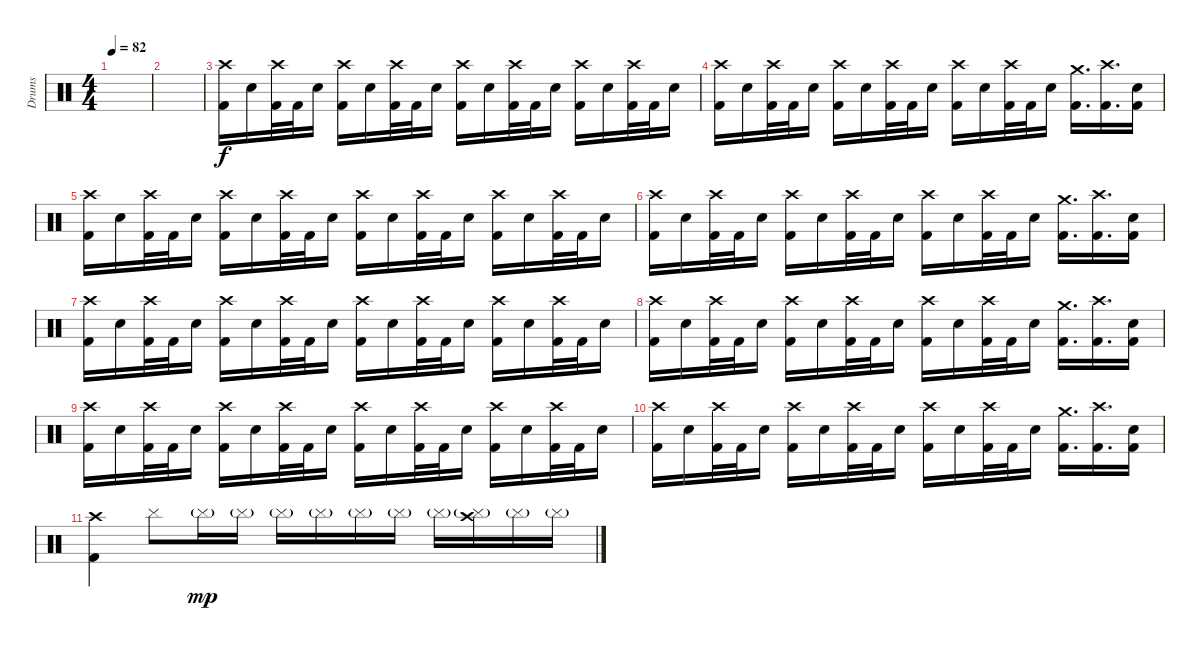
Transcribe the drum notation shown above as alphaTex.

\track ("Drums" "Drums") {instrument percussion}
\staff
\articulation defaults
\ts (4 4)
\section ("" "")
\tempo 82
\clef neutral
\ks c
|
|
("Crash high (hit)" "Kick (hit) 2").16 "Snare (hit) 2".16 ("Crash high (hit)" "Kick (hit) 2").32 "Kick (hit) 2".32 "Snare (hit) 2".16 ("Crash high (hit)" "Kick (hit) 2").16 "Snare (hit) 2".16 ("Crash high (hit)" "Kick (hit) 2").32 "Kick (hit) 2".32 "Snare (hit) 2".16 ("Crash high (hit)" "Kick (hit) 2").16 "Snare (hit) 2".16 ("Crash high (hit)" "Kick (hit) 2").32 "Kick (hit) 2".32 "Snare (hit) 2".16 ("Crash high (hit)" "Kick (hit) 2").16 "Snare (hit) 2".16 ("Crash high (hit)" "Kick (hit) 2").32 "Kick (hit) 2".32 "Snare (hit) 2".16 |
("Crash high (hit)" "Kick (hit) 2").16 "Snare (hit) 2".16 ("Crash high (hit)" "Kick (hit) 2").32 "Kick (hit) 2".32 "Snare (hit) 2".16 ("Crash high (hit)" "Kick (hit) 2").16 "Snare (hit) 2".16 ("Crash high (hit)" "Kick (hit) 2").32 "Kick (hit) 2".32 "Snare (hit) 2".16 ("Crash high (hit)" "Kick (hit) 2").16 "Snare (hit) 2".16 ("Crash high (hit)" "Kick (hit) 2").32 "Kick (hit) 2".32 "Snare (hit) 2".16 ("Crash medium (hit)" "Kick (hit) 2").16{d} ("Crash high (hit)" "Kick (hit) 2").16{d} ("Snare (hit) 2" "Kick (hit) 2").16 |
("Crash high (hit)" "Kick (hit) 2").16 "Snare (hit) 2".16 ("Crash high (hit)" "Kick (hit) 2").32 "Kick (hit) 2".32 "Snare (hit) 2".16 ("Crash high (hit)" "Kick (hit) 2").16 "Snare (hit) 2".16 ("Crash high (hit)" "Kick (hit) 2").32 "Kick (hit) 2".32 "Snare (hit) 2".16 ("Crash high (hit)" "Kick (hit) 2").16 "Snare (hit) 2".16 ("Crash high (hit)" "Kick (hit) 2").32 "Kick (hit) 2".32 "Snare (hit) 2".16 ("Crash high (hit)" "Kick (hit) 2").16 "Snare (hit) 2".16 ("Crash high (hit)" "Kick (hit) 2").32 "Kick (hit) 2".32 "Snare (hit) 2".16 |
("Crash high (hit)" "Kick (hit) 2").16 "Snare (hit) 2".16 ("Crash high (hit)" "Kick (hit) 2").32 "Kick (hit) 2".32 "Snare (hit) 2".16 ("Crash high (hit)" "Kick (hit) 2").16 "Snare (hit) 2".16 ("Crash high (hit)" "Kick (hit) 2").32 "Kick (hit) 2".32 "Snare (hit) 2".16 ("Crash high (hit)" "Kick (hit) 2").16 "Snare (hit) 2".16 ("Crash high (hit)" "Kick (hit) 2").32 "Kick (hit) 2".32 "Snare (hit) 2".16 ("Crash medium (hit)" "Kick (hit) 2").16{d} ("Crash high (hit)" "Kick (hit) 2").16{d} ("Snare (hit) 2" "Kick (hit) 2").16 |
("Crash high (hit)" "Kick (hit) 2").16 "Snare (hit) 2".16 ("Crash high (hit)" "Kick (hit) 2").32 "Kick (hit) 2".32 "Snare (hit) 2".16 ("Crash high (hit)" "Kick (hit) 2").16 "Snare (hit) 2".16 ("Crash high (hit)" "Kick (hit) 2").32 "Kick (hit) 2".32 "Snare (hit) 2".16 ("Crash high (hit)" "Kick (hit) 2").16 "Snare (hit) 2".16 ("Crash high (hit)" "Kick (hit) 2").32 "Kick (hit) 2".32 "Snare (hit) 2".16 ("Crash high (hit)" "Kick (hit) 2").16 "Snare (hit) 2".16 ("Crash high (hit)" "Kick (hit) 2").32 "Kick (hit) 2".32 "Snare (hit) 2".16 |
("Crash high (hit)" "Kick (hit) 2").16 "Snare (hit) 2".16 ("Crash high (hit)" "Kick (hit) 2").32 "Kick (hit) 2".32 "Snare (hit) 2".16 ("Crash high (hit)" "Kick (hit) 2").16 "Snare (hit) 2".16 ("Crash high (hit)" "Kick (hit) 2").32 "Kick (hit) 2".32 "Snare (hit) 2".16 ("Crash high (hit)" "Kick (hit) 2").16 "Snare (hit) 2".16 ("Crash high (hit)" "Kick (hit) 2").32 "Kick (hit) 2".32 "Snare (hit) 2".16 ("Crash medium (hit)" "Kick (hit) 2").16{d} ("Crash high (hit)" "Kick (hit) 2").16{d} ("Snare (hit) 2" "Kick (hit) 2").16 |
("Crash high (hit)" "Kick (hit) 2").16 "Snare (hit) 2".16 ("Crash high (hit)" "Kick (hit) 2").32 "Kick (hit) 2".32 "Snare (hit) 2".16 ("Crash high (hit)" "Kick (hit) 2").16 "Snare (hit) 2".16 ("Crash high (hit)" "Kick (hit) 2").32 "Kick (hit) 2".32 "Snare (hit) 2".16 ("Crash high (hit)" "Kick (hit) 2").16 "Snare (hit) 2".16 ("Crash high (hit)" "Kick (hit) 2").32 "Kick (hit) 2".32 "Snare (hit) 2".16 ("Crash high (hit)" "Kick (hit) 2").16 "Snare (hit) 2".16 ("Crash high (hit)" "Kick (hit) 2").32 "Kick (hit) 2".32 "Snare (hit) 2".16 |
("Crash high (hit)" "Kick (hit) 2").16 "Snare (hit) 2".16 ("Crash high (hit)" "Kick (hit) 2").32 "Kick (hit) 2".32 "Snare (hit) 2".16 ("Crash high (hit)" "Kick (hit) 2").16 "Snare (hit) 2".16 ("Crash high (hit)" "Kick (hit) 2").32 "Kick (hit) 2".32 "Snare (hit) 2".16 ("Crash high (hit)" "Kick (hit) 2").16 "Snare (hit) 2".16 ("Crash high (hit)" "Kick (hit) 2").32 "Kick (hit) 2".32 "Snare (hit) 2".16 ("Crash medium (hit)" "Kick (hit) 2").16{d} ("Crash high (hit)" "Kick (hit) 2").16{d} ("Snare (hit) 2" "Kick (hit) 2").16 |
("Crash high (hit)" "Kick (hit) 2").4 "Cymbal (hit)".8 "Cymbal (hit)"{g}.16{dy mp} "Cymbal (hit)"{g}.16 "Cymbal (hit)"{g}.16 "Cymbal (hit)"{g}.16 "Cymbal (hit)"{g}.16 "Cymbal (hit)"{g}.16 "Cymbal (hit)"{g}.16 ("Crash high (hit)" "Cymbal (hit)"{g}).16 "Cymbal (hit)"{g}.16 "Cymbal (hit)"{g}.16
